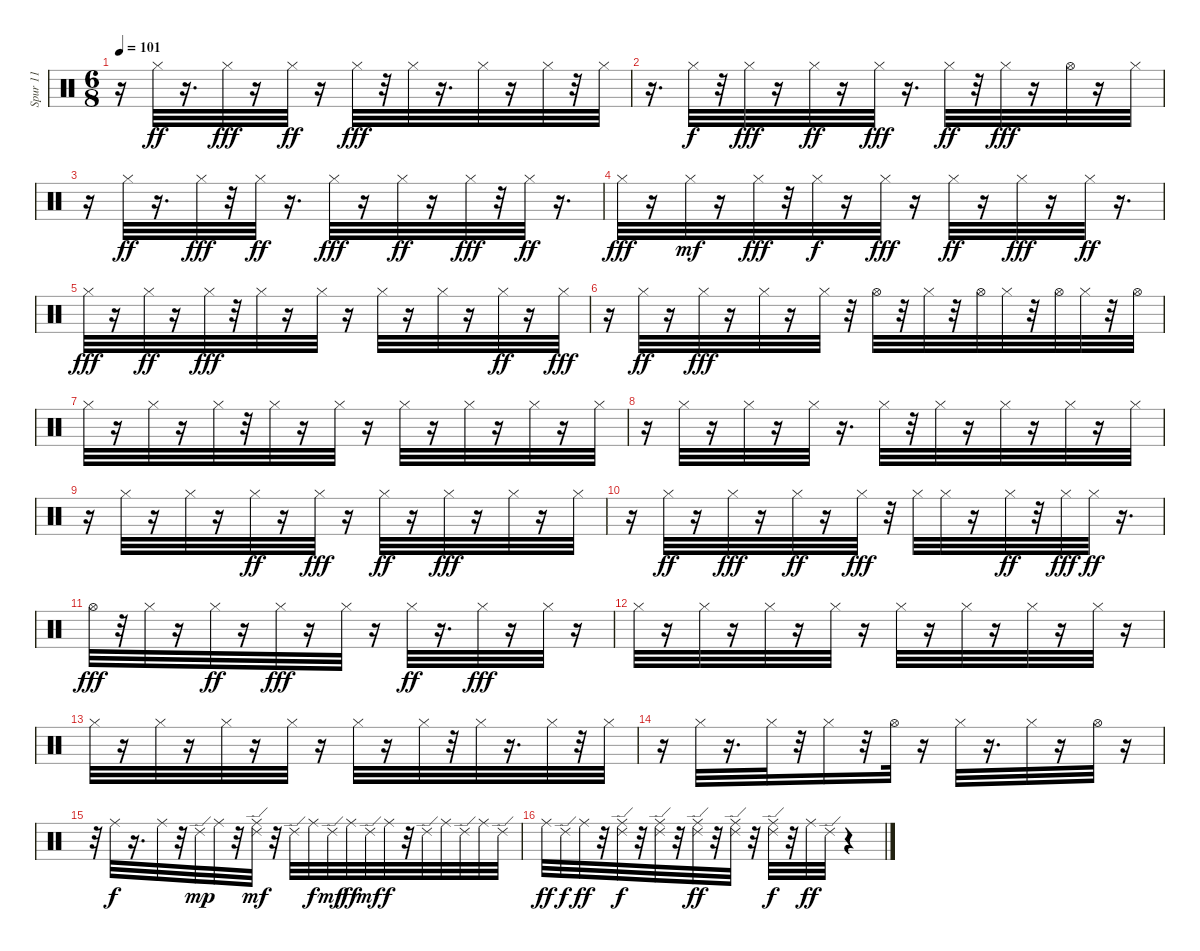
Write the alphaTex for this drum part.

\track ("Spur 11" "Spur 11") {instrument percussion}
\staff {score}
\articulation defaults
\ts (6 8)
\tempo 101
\clef neutral
\ks c
r.16{dy fff} "Hi-Hat (closed)".32{dy ff} r.16{d} "Hi-Hat (closed)".32{dy fff} r.16 "Hi-Hat (closed)".32{dy ff} r.16 "Hi-Hat (closed)".32{dy fff} r.32 "Hi-Hat (closed)".32 r.16{d} "Hi-Hat (closed)".32 r.16 "Hi-Hat (closed)".32 r.32 "Hi-Hat (closed)".32 |
r.16{d} "Hi-Hat (closed)".32{dy f} r.32 "Hi-Hat (closed)".32{dy fff} r.16 "Hi-Hat (closed)".32{dy ff} r.16 "Hi-Hat (closed)".32{dy fff} r.16{d} "Hi-Hat (closed)".32{dy ff} r.32 "Hi-Hat (closed)".32{dy fff} r.16 "Hi-Hat (open)".32 r.16 "Hi-Hat (closed)".32 |
r.16 "Hi-Hat (closed)".32{dy ff} r.16{d} "Hi-Hat (closed)".32{dy fff} r.32 "Hi-Hat (closed)".32{dy ff} r.16{d} "Hi-Hat (closed)".32{dy fff} r.16 "Hi-Hat (closed)".32{dy ff} r.16 "Hi-Hat (closed)".32{dy fff} r.32 "Hi-Hat (closed)".32{dy ff} r.16{d} |
"Hi-Hat (closed)".32{dy fff} r.16 "Hi-Hat (closed)".32{dy mf} r.16 "Hi-Hat (closed)".32{dy fff} r.32 "Hi-Hat (closed)".32{dy f} r.16 "Hi-Hat (closed)".32{dy fff} r.16 "Hi-Hat (closed)".32{dy ff} r.16 "Hi-Hat (closed)".32{dy fff} r.16 "Hi-Hat (closed)".32{dy ff} r.16{d} |
"Hi-Hat (closed)".32{dy fff} r.16 "Hi-Hat (closed)".32{dy ff} r.16 "Hi-Hat (closed)".32{dy fff} r.32 "Hi-Hat (closed)".32 r.16 "Hi-Hat (closed)".32 r.16 "Hi-Hat (closed)".32 r.16 "Hi-Hat (closed)".32 r.16 "Hi-Hat (closed)".32{dy ff} r.16 "Hi-Hat (closed)".32{dy fff} |
r.16 "Hi-Hat (closed)".32{dy ff} r.16 "Hi-Hat (closed)".32{dy fff} r.16 "Hi-Hat (closed)".32 r.16 "Hi-Hat (closed)".32 r.32 "Hi-Hat (open)".32 r.32 "Hi-Hat (closed)".32 r.32 "Hi-Hat (open)".32 "Hi-Hat (closed)".32 r.32 "Hi-Hat (open)".32 "Hi-Hat (closed)".32 r.32 "Hi-Hat (open)".32 |
"Hi-Hat (closed)".32 r.16 "Hi-Hat (closed)".32 r.16 "Hi-Hat (closed)".32 r.32 "Hi-Hat (closed)".32 r.16 "Hi-Hat (closed)".32 r.16 "Hi-Hat (closed)".32 r.16 "Hi-Hat (closed)".32 r.16 "Hi-Hat (closed)".32 r.16 "Hi-Hat (closed)".32 |
r.16 "Hi-Hat (closed)".32 r.16 "Hi-Hat (closed)".32 r.16 "Hi-Hat (closed)".32 r.16{d} "Hi-Hat (closed)".32 r.32 "Hi-Hat (closed)".32 r.16 "Hi-Hat (closed)".32 r.16 "Hi-Hat (closed)".32 r.16 "Hi-Hat (closed)".32 |
r.16 "Hi-Hat (closed)".32 r.16 "Hi-Hat (closed)".32 r.16 "Hi-Hat (closed)".32{dy ff} r.16 "Hi-Hat (closed)".32{dy fff} r.16 "Hi-Hat (closed)".32{dy ff} r.16 "Hi-Hat (closed)".32{dy fff} r.16 "Hi-Hat (closed)".32 r.16 "Hi-Hat (closed)".32 |
r.16 "Hi-Hat (closed)".32{dy ff} r.16 "Hi-Hat (closed)".32{dy fff} r.16 "Hi-Hat (closed)".32{dy ff} r.16 "Hi-Hat (closed)".32{dy fff} r.32 "Hi-Hat (closed)".32 "Hi-Hat (closed)".32 r.16 "Hi-Hat (closed)".32{dy ff} r.32 "Hi-Hat (closed)".32{dy fff} "Hi-Hat (closed)".32{dy ff} r.16{d} |
"Hi-Hat (open)".32{dy fff} r.32 "Hi-Hat (closed)".32 r.16 "Hi-Hat (closed)".32{dy ff} r.16 "Hi-Hat (closed)".32{dy fff} r.16 "Hi-Hat (closed)".32 r.16 "Hi-Hat (closed)".32{dy ff} r.16{d} "Hi-Hat (closed)".32{dy fff} r.16 "Hi-Hat (closed)".32 r.16 |
"Hi-Hat (closed)".32 r.16 "Hi-Hat (closed)".32 r.16 "Hi-Hat (closed)".32 r.16 "Hi-Hat (closed)".32 r.16 "Hi-Hat (closed)".32 r.16 "Hi-Hat (closed)".32 r.16 "Hi-Hat (closed)".32 r.16 "Hi-Hat (closed)".32 r.16 |
"Hi-Hat (closed)".32 r.16 "Hi-Hat (closed)".32 r.16 "Hi-Hat (closed)".32 r.16 "Hi-Hat (closed)".32 r.16 "Hi-Hat (closed)".32 r.16 "Hi-Hat (closed)".32 r.32 "Hi-Hat (closed)".32 r.16{d} "Hi-Hat (closed)".32 r.32 "Hi-Hat (closed)".32 |
r.16 "Hi-Hat (closed)".32 r.16{d} "Hi-Hat (closed)".32 r.32 "Hi-Hat (closed)".16 r.32 "Hi-Hat (open)".32 r.16 "Hi-Hat (closed)".32 r.16{d} "Hi-Hat (closed)".32 r.16 "Hi-Hat (open)".32 r.16 |
r.32 "Ride (middle)".32{dy f} r.16{d} "Ride (middle)".32 r.32 "Ride (edge) 2".32{dy mp} "Ride (middle)".32 r.32 ("Ride (edge) 2" "Ride (middle)").32{dy mf} r.32 "Ride (edge) 2".32 "Ride (middle)".32{dy f} "Ride (edge) 2".32{dy mf} "Ride (middle)".32{dy ff} "Ride (edge) 2".32{dy mf} "Ride (middle)".32{dy f} r.32 "Ride (edge) 2".32 "Ride (middle)".32 "Ride (edge) 2".32 "Ride (middle)".32 "Ride (edge) 2".32 |
"Ride (middle)".32{dy ff} "Ride (edge) 2".32{dy f} "Ride (middle)".32{dy ff} r.32 ("Ride (edge) 2" "Ride (middle)").32{dy f} r.32 ("Ride (middle)" "Ride (edge) 2").32 r.32 ("Ride (middle)" "Ride (edge) 2").32{dy ff} r.32 ("Ride (middle)" "Ride (edge) 2").32 r.32 ("Ride (middle)" "Ride (edge) 2").32{dy f} r.32 "Ride (middle)".32{dy ff} "Ride (edge) 2".32 r.4
